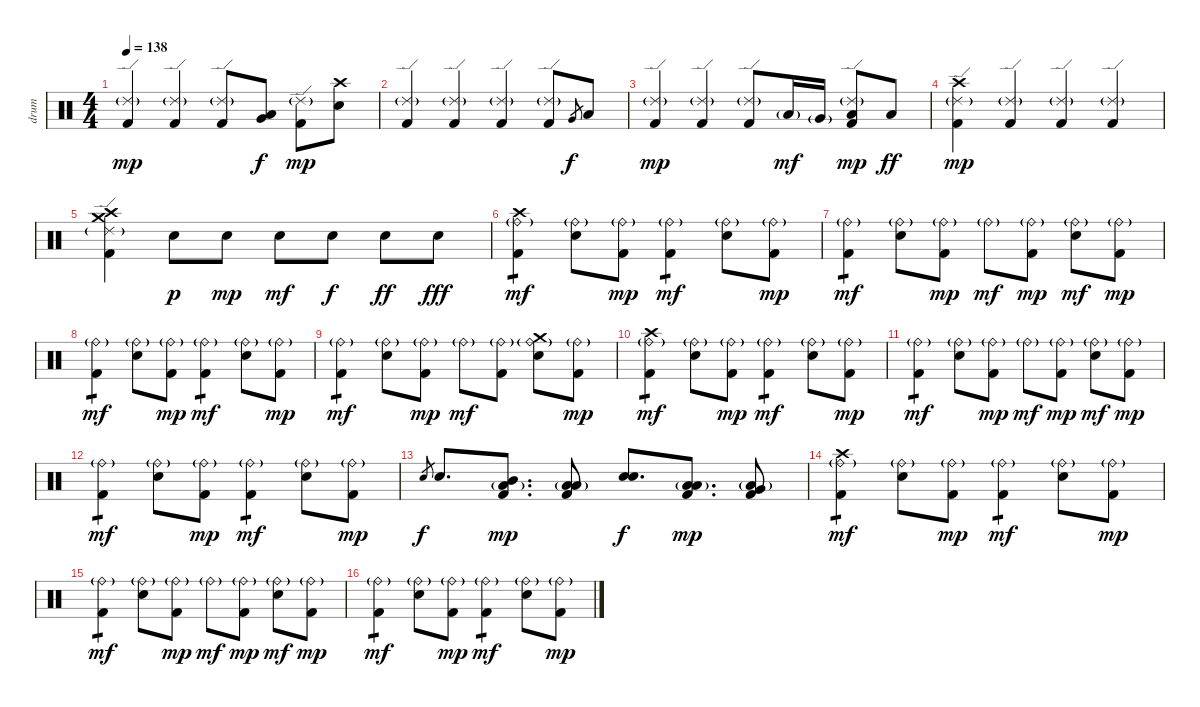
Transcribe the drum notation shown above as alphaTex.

\track ("drum" "drum") {instrument percussion}
\staff {score}
\articulation defaults
\ts (4 4)
\tempo 138
\clef neutral
\ks c
("Kick (hit) 2" "Ride (edge) 2"{g}).4{dy mp} ("Kick (hit) 2" "Ride (edge) 2"{g}).4 ("Kick (hit) 2" "Ride (edge) 2"{g}).8 ("Very Low Tom (hit)" "Low Floor Tom (hit)").8{dy f} ("Kick (hit) 2" "Ride (edge) 2"{g}).8{dy mp} ("Crash high (hit)" "Snare (hit) 2").8 |
("Kick (hit) 2" "Ride (edge) 2"{g}).4 ("Kick (hit) 2" "Ride (edge) 2"{g}).4 ("Kick (hit) 2" "Ride (edge) 2"{g}).4 ("Kick (hit) 2" "Ride (edge) 2"{g}).8 "Very Low Tom (hit)".8{gr dy f} "Low Floor Tom (hit)".8 |
("Kick (hit) 2" "Ride (edge) 2"{g}).4{dy mp} ("Kick (hit) 2" "Ride (edge) 2"{g}).4 ("Kick (hit) 2" "Ride (edge) 2"{g}).8 "Low Tom (hit)"{g}.16{dy mf} "Very Low Tom (hit)"{g}.16 ("Low Floor Tom (hit)" "Kick (hit) 2" "Ride (edge) 2"{g}).8{dy mp} "Low Floor Tom (hit)".8{dy ff} |
("Crash high (hit)" "Kick (hit) 2" "Ride (edge) 2"{g}).4{dy mp} ("Kick (hit) 2" "Ride (edge) 2"{g}).4 ("Kick (hit) 2" "Ride (edge) 2"{g}).4 ("Kick (hit) 2" "Ride (edge) 2"{g}).4 |
("Crash high (hit)" "Crash medium (hit)" "Kick (hit) 2" "Ride (edge) 2"{g}).4 "Snare (hit) 2".8{dy p} "Snare (hit) 2".8{dy mp} "Snare (hit) 2".8{dy mf} "Snare (hit) 2".8{dy f} "Snare (hit) 2".8{dy ff} "Snare (hit) 2".8{dy fff} |
("Crash high (hit)" "Ride (bell)"{g} "Kick (hit) 2").4{tp 1 dy mf} ("Ride (bell)"{g} "Snare (hit) 2").8 ("Ride (bell)"{g} "Kick (hit) 2").8{dy mp} ("Ride (bell)"{g} "Kick (hit) 2").4{tp 1 dy mf} ("Ride (bell)"{g} "Snare (hit) 2").8 ("Ride (bell)"{g} "Kick (hit) 2").8{dy mp} |
("Ride (bell)"{g} "Kick (hit) 2").4{tp 1 dy mf} ("Ride (bell)"{g} "Snare (hit) 2").8 ("Ride (bell)"{g} "Kick (hit) 2").8{dy mp} "Ride (bell)"{g}.8{dy mf} ("Ride (bell)"{g} "Kick (hit) 2").8{dy mp} ("Ride (bell)"{g} "Snare (hit) 2").8{dy mf} ("Ride (bell)"{g} "Kick (hit) 2").8{dy mp} |
("Ride (bell)"{g} "Kick (hit) 2").4{tp 1 dy mf} ("Ride (bell)"{g} "Snare (hit) 2").8 ("Ride (bell)"{g} "Kick (hit) 2").8{dy mp} ("Ride (bell)"{g} "Kick (hit) 2").4{tp 1 dy mf} ("Ride (bell)"{g} "Snare (hit) 2").8 ("Ride (bell)"{g} "Kick (hit) 2").8{dy mp} |
("Ride (bell)"{g} "Kick (hit) 2").4{tp 1 dy mf} ("Ride (bell)"{g} "Snare (hit) 2").8 ("Ride (bell)"{g} "Kick (hit) 2").8{dy mp} "Ride (bell)"{g}.8{dy mf} ("Ride (bell)"{g} "Kick (hit) 2").8 ("Crash medium (hit)" "Ride (bell)"{g} "Snare (hit) 2").8 ("Ride (bell)"{g} "Kick (hit) 2").8{dy mp} |
("Crash high (hit)" "Ride (bell)"{g} "Kick (hit) 2").4{tp 1 dy mf} ("Ride (bell)"{g} "Snare (hit) 2").8 ("Ride (bell)"{g} "Kick (hit) 2").8{dy mp} ("Ride (bell)"{g} "Kick (hit) 2").4{tp 1 dy mf} ("Ride (bell)"{g} "Snare (hit) 2").8 ("Ride (bell)"{g} "Kick (hit) 2").8{dy mp} |
("Ride (bell)"{g} "Kick (hit) 2").4{tp 1 dy mf} ("Ride (bell)"{g} "Snare (hit) 2").8 ("Ride (bell)"{g} "Kick (hit) 2").8{dy mp} "Ride (bell)"{g}.8{dy mf} ("Ride (bell)"{g} "Kick (hit) 2").8{dy mp} ("Ride (bell)"{g} "Snare (hit) 2").8{dy mf} ("Ride (bell)"{g} "Kick (hit) 2").8{dy mp} |
("Ride (bell)"{g} "Kick (hit) 2").4{tp 1 dy mf} ("Ride (bell)"{g} "Snare (hit) 2").8 ("Ride (bell)"{g} "Kick (hit) 2").8{dy mp} ("Ride (bell)"{g} "Kick (hit) 2").4{tp 1 dy mf} ("Ride (bell)"{g} "Snare (hit) 2").8 ("Ride (bell)"{g} "Kick (hit) 2").8{dy mp} |
"Snare (hit) 2".8{gr dy f} "Snare (hit) 2".8{d} ("Low Floor Tom (hit)"{g} "Mid Tom (hit)" "Kick (hit) 2").8{d dy mp} ("Low Floor Tom (hit)"{g} "Low Tom (hit)" "Kick (hit) 2").8 ("Snare (hit) 2" "Snare (hit) 2").8{d bd 240 dy f} ("Low Floor Tom (hit)"{g} "Low Tom (hit)" "Kick (hit) 2").8{d dy mp} ("Low Floor Tom (hit)"{g} "Very Low Tom (hit)" "Kick (hit) 2").8 |
("Crash high (hit)" "Ride (bell)"{g} "Kick (hit) 2").4{tp 1 dy mf} ("Ride (bell)"{g} "Snare (hit) 2").8 ("Ride (bell)"{g} "Kick (hit) 2").8{dy mp} ("Ride (bell)"{g} "Kick (hit) 2").4{tp 1 dy mf} ("Ride (bell)"{g} "Snare (hit) 2").8 ("Ride (bell)"{g} "Kick (hit) 2").8{dy mp} |
("Ride (bell)"{g} "Kick (hit) 2").4{tp 1 dy mf} ("Ride (bell)"{g} "Snare (hit) 2").8 ("Ride (bell)"{g} "Kick (hit) 2").8{dy mp} "Ride (bell)"{g}.8{dy mf} ("Ride (bell)"{g} "Kick (hit) 2").8{dy mp} ("Ride (bell)"{g} "Snare (hit) 2").8{dy mf} ("Ride (bell)"{g} "Kick (hit) 2").8{dy mp} |
("Ride (bell)"{g} "Kick (hit) 2").4{tp 1 dy mf} ("Ride (bell)"{g} "Snare (hit) 2").8 ("Ride (bell)"{g} "Kick (hit) 2").8{dy mp} ("Ride (bell)"{g} "Kick (hit) 2").4{tp 1 dy mf} ("Ride (bell)"{g} "Snare (hit) 2").8 ("Ride (bell)"{g} "Kick (hit) 2").8{dy mp}
